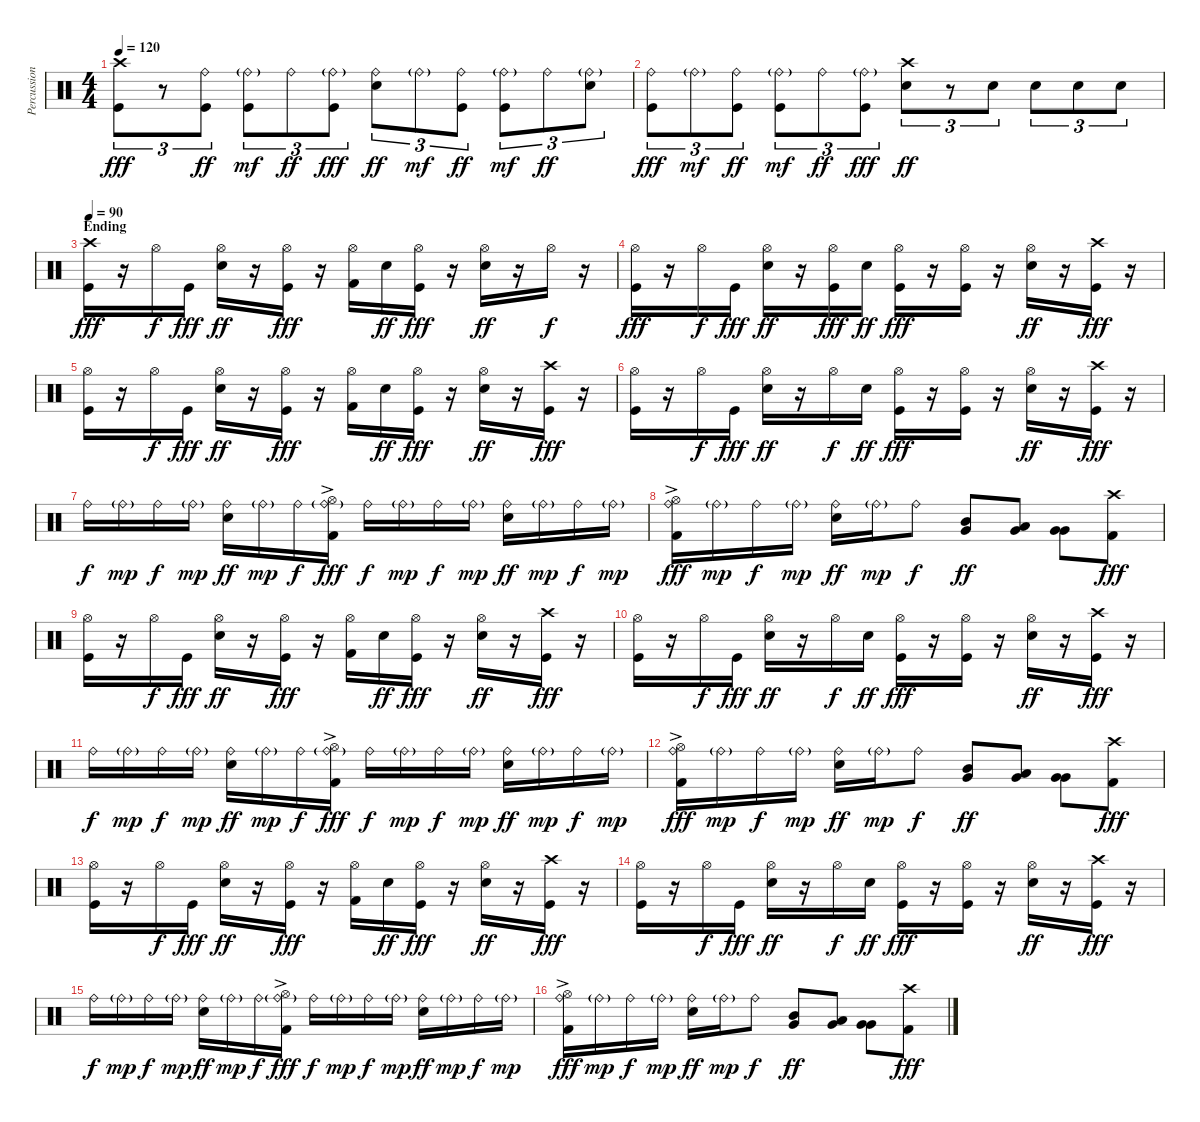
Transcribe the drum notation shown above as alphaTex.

\track ("Percussion" "Percussion") {instrument percussion}
\staff {score}
\articulation defaults
\ts (4 4)
\tempo 120
\clef neutral
\ks c
("Crash high (hit)" "Kick (hit)").8{tu (3 2) dy fff} r.8{tu (3 2)} ("Ride (bell)" "Kick (hit)").8{tu (3 2) dy ff} ("Ride (bell)"{g} "Kick (hit)").8{tu (3 2) dy mf} "Ride (bell)".8{tu (3 2) dy ff} ("Ride (bell)"{g} "Kick (hit)").8{tu (3 2) dy fff} ("Ride (bell)" "Snare (hit) 2").8{tu (3 2) dy ff} "Ride (bell)"{g}.8{tu (3 2) dy mf} ("Ride (bell)" "Kick (hit)").8{tu (3 2) dy ff} ("Ride (bell)"{g} "Kick (hit)").8{tu (3 2) dy mf} "Ride (bell)".8{tu (3 2) dy ff} ("Ride (bell)"{g} "Snare (hit) 2").8{tu (3 2)} |
("Ride (bell)" "Kick (hit)").8{tu (3 2) dy fff} "Ride (bell)"{g}.8{tu (3 2) dy mf} ("Ride (bell)" "Kick (hit)").8{tu (3 2) dy ff} ("Ride (bell)"{g} "Kick (hit)").8{tu (3 2) dy mf} "Ride (bell)".8{tu (3 2) dy ff} ("Ride (bell)"{g} "Kick (hit)").8{tu (3 2) dy fff} ("Crash high (hit)" "Snare (hit) 2").8{tu (3 2) dy ff} r.8{tu (3 2)} "Snare (hit) 2".8{tu (3 2)} "Snare (hit) 2".8{tu (3 2)} "Snare (hit) 2".8{tu (3 2)} "Snare (hit) 2".8{tu (3 2)} |
\section ("" "Ending")
\tempo 90
("Crash high (hit)" "Kick (hit)").16{dy fff} r.16 "Hi-Hat (open)".16{dy f} "Kick (hit)".16{dy fff} ("Hi-Hat (open)" "Snare (hit) 2").16{dy ff} r.16 ("Hi-Hat (open)" "Kick (hit)").16{dy fff} r.16 ("Hi-Hat (open)" "Kick (hit) 2").16 "Snare (hit) 2".16{dy ff} ("Hi-Hat (open)" "Kick (hit)").16{dy fff} r.16 ("Hi-Hat (open)" "Snare (hit) 2").16{dy ff} r.16 "Hi-Hat (open)".16{dy f} r.16 |
("Hi-Hat (open)" "Kick (hit)").16{dy fff} r.16 "Hi-Hat (open)".16{dy f} "Kick (hit)".16{dy fff} ("Hi-Hat (open)" "Snare (hit) 2").16{dy ff} r.16 ("Hi-Hat (open)" "Kick (hit)").16{dy fff} "Snare (hit) 2".16{dy ff} ("Hi-Hat (open)" "Kick (hit)").16{dy fff} r.16 ("Hi-Hat (open)" "Kick (hit)").16 r.16 ("Hi-Hat (open)" "Snare (hit) 2").16{dy ff} r.16 ("Crash high (hit)" "Kick (hit)").16{dy fff} r.16 |
("Hi-Hat (open)" "Kick (hit)").16 r.16 "Hi-Hat (open)".16{dy f} "Kick (hit)".16{dy fff} ("Hi-Hat (open)" "Snare (hit) 2").16{dy ff} r.16 ("Hi-Hat (open)" "Kick (hit)").16{dy fff} r.16 ("Hi-Hat (open)" "Kick (hit) 2").16 "Snare (hit) 2".16{dy ff} ("Hi-Hat (open)" "Kick (hit)").16{dy fff} r.16 ("Hi-Hat (open)" "Snare (hit) 2").16{dy ff} r.16 ("Crash high (hit)" "Kick (hit)").16{dy fff} r.16 |
("Hi-Hat (open)" "Kick (hit)").16 r.16 "Hi-Hat (open)".16{dy f} "Kick (hit)".16{dy fff} ("Hi-Hat (open)" "Snare (hit) 2").16{dy ff} r.16 "Hi-Hat (open)".16{dy f} "Snare (hit) 2".16{dy ff} ("Hi-Hat (open)" "Kick (hit)").16{dy fff} r.16 ("Hi-Hat (open)" "Kick (hit)").16 r.16 ("Hi-Hat (open)" "Snare (hit) 2").16{dy ff} r.16 ("Crash high (hit)" "Kick (hit)").16{dy fff} r.16 |
"Ride (bell)".16{dy f} "Ride (bell)"{g}.16{dy mp} "Ride (bell)".16{dy f} "Ride (bell)"{g}.16{dy mp} ("Ride (bell)" "Snare (hit) 2").16{dy ff} "Ride (bell)"{g}.16{dy mp} "Ride (bell)".16{dy f} ("Hi-Hat (open)"{ac} "Ride (bell)"{g} "Kick (hit) 2").16{dy fff} "Ride (bell)".16{dy f} "Ride (bell)"{g}.16{dy mp} "Ride (bell)".16{dy f} "Ride (bell)"{g}.16{dy mp} ("Ride (bell)" "Snare (hit) 2").16{dy ff} "Ride (bell)"{g}.16{dy mp} "Ride (bell)".16{dy f} "Ride (bell)"{g}.16{dy mp} |
("Hi-Hat (open)"{ac} "Ride (bell)" "Kick (hit) 2").16{dy fff} "Ride (bell)"{g}.16{dy mp} "Ride (bell)".16{dy f} "Ride (bell)"{g}.16{dy mp} ("Ride (bell)" "Snare (hit) 2").16{dy ff} "Ride (bell)"{g}.16{dy mp} "Ride (bell)".8{dy f} ("Mid Tom (hit)" "Very Low Tom (hit)").8{dy ff} ("Low Tom (hit)" "Very Low Tom (hit)").8 ("Very Low Tom (hit)" "Very Low Tom (hit)").8 ("Crash high (hit)" "Kick (hit) 2").8{dy fff} |
("Hi-Hat (open)" "Kick (hit)").16 r.16 "Hi-Hat (open)".16{dy f} "Kick (hit)".16{dy fff} ("Hi-Hat (open)" "Snare (hit) 2").16{dy ff} r.16 ("Hi-Hat (open)" "Kick (hit)").16{dy fff} r.16 ("Hi-Hat (open)" "Kick (hit) 2").16 "Snare (hit) 2".16{dy ff} ("Hi-Hat (open)" "Kick (hit)").16{dy fff} r.16 ("Hi-Hat (open)" "Snare (hit) 2").16{dy ff} r.16 ("Crash high (hit)" "Kick (hit)").16{dy fff} r.16 |
("Hi-Hat (open)" "Kick (hit)").16 r.16 "Hi-Hat (open)".16{dy f} "Kick (hit)".16{dy fff} ("Hi-Hat (open)" "Snare (hit) 2").16{dy ff} r.16 "Hi-Hat (open)".16{dy f} "Snare (hit) 2".16{dy ff} ("Hi-Hat (open)" "Kick (hit)").16{dy fff} r.16 ("Hi-Hat (open)" "Kick (hit)").16 r.16 ("Hi-Hat (open)" "Snare (hit) 2").16{dy ff} r.16 ("Crash high (hit)" "Kick (hit)").16{dy fff} r.16 |
"Ride (bell)".16{dy f} "Ride (bell)"{g}.16{dy mp} "Ride (bell)".16{dy f} "Ride (bell)"{g}.16{dy mp} ("Ride (bell)" "Snare (hit) 2").16{dy ff} "Ride (bell)"{g}.16{dy mp} "Ride (bell)".16{dy f} ("Hi-Hat (open)"{ac} "Ride (bell)"{g} "Kick (hit) 2").16{dy fff} "Ride (bell)".16{dy f} "Ride (bell)"{g}.16{dy mp} "Ride (bell)".16{dy f} "Ride (bell)"{g}.16{dy mp} ("Ride (bell)" "Snare (hit) 2").16{dy ff} "Ride (bell)"{g}.16{dy mp} "Ride (bell)".16{dy f} "Ride (bell)"{g}.16{dy mp} |
("Hi-Hat (open)"{ac} "Ride (bell)" "Kick (hit) 2").16{dy fff} "Ride (bell)"{g}.16{dy mp} "Ride (bell)".16{dy f} "Ride (bell)"{g}.16{dy mp} ("Ride (bell)" "Snare (hit) 2").16{dy ff} "Ride (bell)"{g}.16{dy mp} "Ride (bell)".8{dy f} ("Mid Tom (hit)" "Very Low Tom (hit)").8{dy ff} ("Low Tom (hit)" "Very Low Tom (hit)").8 ("Very Low Tom (hit)" "Very Low Tom (hit)").8 ("Crash high (hit)" "Kick (hit) 2").8{dy fff} |
("Hi-Hat (open)" "Kick (hit)").16 r.16 "Hi-Hat (open)".16{dy f} "Kick (hit)".16{dy fff} ("Hi-Hat (open)" "Snare (hit) 2").16{dy ff} r.16 ("Hi-Hat (open)" "Kick (hit)").16{dy fff} r.16 ("Hi-Hat (open)" "Kick (hit) 2").16 "Snare (hit) 2".16{dy ff} ("Hi-Hat (open)" "Kick (hit)").16{dy fff} r.16 ("Hi-Hat (open)" "Snare (hit) 2").16{dy ff} r.16 ("Crash high (hit)" "Kick (hit)").16{dy fff} r.16 |
("Hi-Hat (open)" "Kick (hit)").16 r.16 "Hi-Hat (open)".16{dy f} "Kick (hit)".16{dy fff} ("Hi-Hat (open)" "Snare (hit) 2").16{dy ff} r.16 "Hi-Hat (open)".16{dy f} "Snare (hit) 2".16{dy ff} ("Hi-Hat (open)" "Kick (hit)").16{dy fff} r.16 ("Hi-Hat (open)" "Kick (hit)").16 r.16 ("Hi-Hat (open)" "Snare (hit) 2").16{dy ff} r.16 ("Crash high (hit)" "Kick (hit)").16{dy fff} r.16 |
"Ride (bell)".16{dy f} "Ride (bell)"{g}.16{dy mp} "Ride (bell)".16{dy f} "Ride (bell)"{g}.16{dy mp} ("Ride (bell)" "Snare (hit) 2").16{dy ff} "Ride (bell)"{g}.16{dy mp} "Ride (bell)".16{dy f} ("Hi-Hat (open)"{ac} "Ride (bell)"{g} "Kick (hit) 2").16{dy fff} "Ride (bell)".16{dy f} "Ride (bell)"{g}.16{dy mp} "Ride (bell)".16{dy f} "Ride (bell)"{g}.16{dy mp} ("Ride (bell)" "Snare (hit) 2").16{dy ff} "Ride (bell)"{g}.16{dy mp} "Ride (bell)".16{dy f} "Ride (bell)"{g}.16{dy mp} |
("Hi-Hat (open)"{ac} "Ride (bell)" "Kick (hit) 2").16{dy fff} "Ride (bell)"{g}.16{dy mp} "Ride (bell)".16{dy f} "Ride (bell)"{g}.16{dy mp} ("Ride (bell)" "Snare (hit) 2").16{dy ff} "Ride (bell)"{g}.16{dy mp} "Ride (bell)".8{dy f} ("Mid Tom (hit)" "Very Low Tom (hit)").8{dy ff} ("Low Tom (hit)" "Very Low Tom (hit)").8 ("Very Low Tom (hit)" "Very Low Tom (hit)").8 ("Crash high (hit)" "Kick (hit) 2").8{dy fff}
